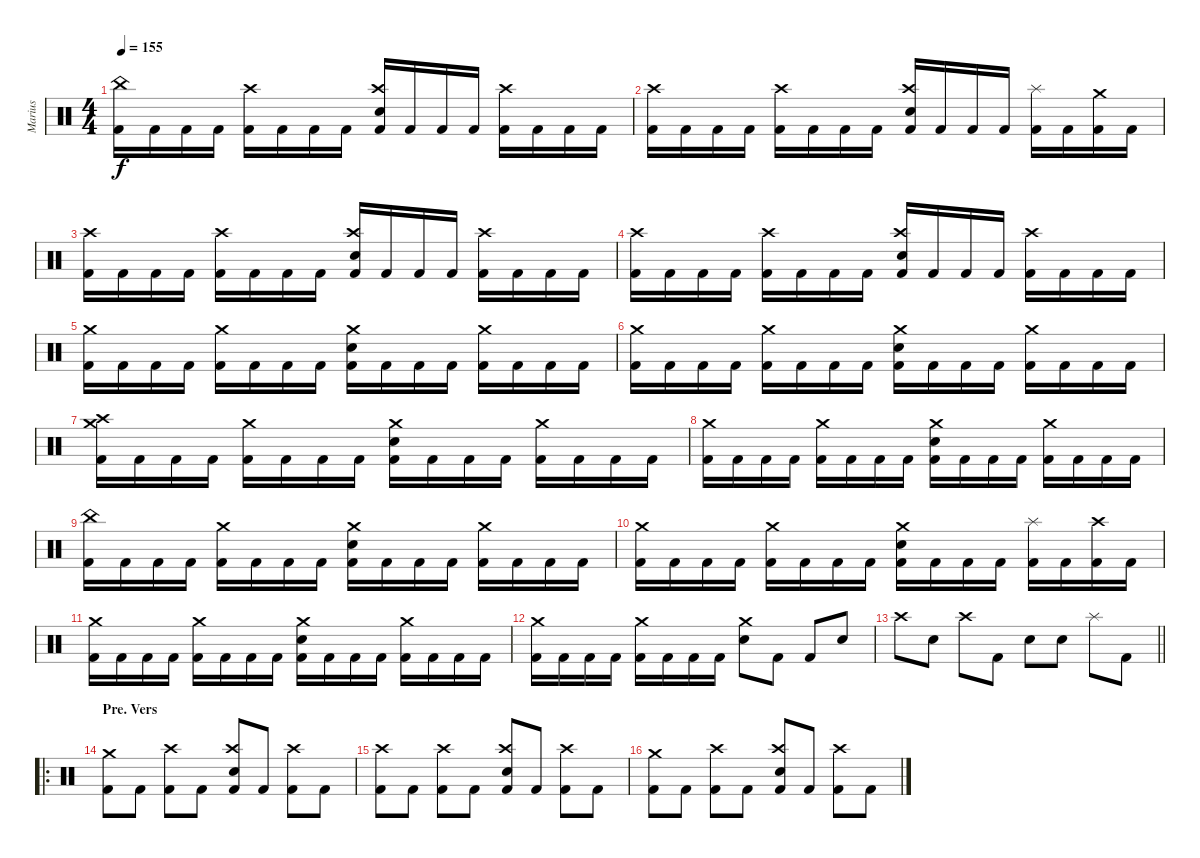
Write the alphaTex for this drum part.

\track ("Marius" "Marius") {instrument percussion}
\staff {score}
\articulation defaults
\ts (4 4)
\tempo 155
\clef neutral
\ks c
("China (hit)" "Kick (hit) 2").16{dy f} "Kick (hit) 2".16 "Kick (hit) 2".16 "Kick (hit) 2".16 ("Crash high (hit)" "Kick (hit) 2").16 "Kick (hit) 2".16 "Kick (hit) 2".16 "Kick (hit) 2".16 ("Crash high (hit)" "Snare (hit) 2" "Kick (hit) 2").16 "Kick (hit) 2".16 "Kick (hit) 2".16 "Kick (hit) 2".16 ("Crash high (hit)" "Kick (hit) 2").16 "Kick (hit) 2".16 "Kick (hit) 2".16 "Kick (hit) 2".16 |
("Crash high (hit)" "Kick (hit) 2").16 "Kick (hit) 2".16 "Kick (hit) 2".16 "Kick (hit) 2".16 ("Crash high (hit)" "Kick (hit) 2").16 "Kick (hit) 2".16 "Kick (hit) 2".16 "Kick (hit) 2".16 ("Crash high (hit)" "Snare (hit) 2" "Kick (hit) 2").16 "Kick (hit) 2".16 "Kick (hit) 2".16 "Kick (hit) 2".16 ("Splash (hit)" "Kick (hit) 2").16 "Kick (hit) 2".16 ("Crash medium (hit)" "Kick (hit) 2").16 "Kick (hit) 2".16 |
("Crash high (hit)" "Kick (hit) 2").16 "Kick (hit) 2".16 "Kick (hit) 2".16 "Kick (hit) 2".16 ("Crash high (hit)" "Kick (hit) 2").16 "Kick (hit) 2".16 "Kick (hit) 2".16 "Kick (hit) 2".16 ("Crash high (hit)" "Snare (hit) 2" "Kick (hit) 2").16 "Kick (hit) 2".16 "Kick (hit) 2".16 "Kick (hit) 2".16 ("Crash high (hit)" "Kick (hit) 2").16 "Kick (hit) 2".16 "Kick (hit) 2".16 "Kick (hit) 2".16 |
("Crash high (hit)" "Kick (hit) 2").16 "Kick (hit) 2".16 "Kick (hit) 2".16 "Kick (hit) 2".16 ("Crash high (hit)" "Kick (hit) 2").16 "Kick (hit) 2".16 "Kick (hit) 2".16 "Kick (hit) 2".16 ("Crash high (hit)" "Snare (hit) 2" "Kick (hit) 2").16 "Kick (hit) 2".16 "Kick (hit) 2".16 "Kick (hit) 2".16 ("Crash high (hit)" "Kick (hit) 2").16 "Kick (hit) 2".16 "Kick (hit) 2".16 "Kick (hit) 2".16 |
("Crash medium (hit)" "Kick (hit) 2").16 "Kick (hit) 2".16 "Kick (hit) 2".16 "Kick (hit) 2".16 ("Crash medium (hit)" "Kick (hit) 2").16 "Kick (hit) 2".16 "Kick (hit) 2".16 "Kick (hit) 2".16 ("Crash medium (hit)" "Snare (hit) 2" "Kick (hit) 2").16 "Kick (hit) 2".16 "Kick (hit) 2".16 "Kick (hit) 2".16 ("Crash medium (hit)" "Kick (hit) 2").16 "Kick (hit) 2".16 "Kick (hit) 2".16 "Kick (hit) 2".16 |
("Crash medium (hit)" "Kick (hit) 2").16 "Kick (hit) 2".16 "Kick (hit) 2".16 "Kick (hit) 2".16 ("Crash medium (hit)" "Kick (hit) 2").16 "Kick (hit) 2".16 "Kick (hit) 2".16 "Kick (hit) 2".16 ("Crash medium (hit)" "Snare (hit) 2" "Kick (hit) 2").16 "Kick (hit) 2".16 "Kick (hit) 2".16 "Kick (hit) 2".16 ("Crash medium (hit)" "Kick (hit) 2").16 "Kick (hit) 2".16 "Kick (hit) 2".16 "Kick (hit) 2".16 |
("Crash high (hit)" "Crash medium (hit)" "Kick (hit) 2").16 "Kick (hit) 2".16 "Kick (hit) 2".16 "Kick (hit) 2".16 ("Crash medium (hit)" "Kick (hit) 2").16 "Kick (hit) 2".16 "Kick (hit) 2".16 "Kick (hit) 2".16 ("Crash medium (hit)" "Snare (hit) 2" "Kick (hit) 2").16 "Kick (hit) 2".16 "Kick (hit) 2".16 "Kick (hit) 2".16 ("Crash medium (hit)" "Kick (hit) 2").16 "Kick (hit) 2".16 "Kick (hit) 2".16 "Kick (hit) 2".16 |
("Crash medium (hit)" "Kick (hit) 2").16 "Kick (hit) 2".16 "Kick (hit) 2".16 "Kick (hit) 2".16 ("Crash medium (hit)" "Kick (hit) 2").16 "Kick (hit) 2".16 "Kick (hit) 2".16 "Kick (hit) 2".16 ("Crash medium (hit)" "Snare (hit) 2" "Kick (hit) 2").16 "Kick (hit) 2".16 "Kick (hit) 2".16 "Kick (hit) 2".16 ("Crash medium (hit)" "Kick (hit) 2").16 "Kick (hit) 2".16 "Kick (hit) 2".16 "Kick (hit) 2".16 |
("China (hit)" "Kick (hit) 2").16 "Kick (hit) 2".16 "Kick (hit) 2".16 "Kick (hit) 2".16 ("Crash medium (hit)" "Kick (hit) 2").16 "Kick (hit) 2".16 "Kick (hit) 2".16 "Kick (hit) 2".16 ("Crash medium (hit)" "Snare (hit) 2" "Kick (hit) 2").16 "Kick (hit) 2".16 "Kick (hit) 2".16 "Kick (hit) 2".16 ("Crash medium (hit)" "Kick (hit) 2").16 "Kick (hit) 2".16 "Kick (hit) 2".16 "Kick (hit) 2".16 |
("Crash medium (hit)" "Kick (hit) 2").16 "Kick (hit) 2".16 "Kick (hit) 2".16 "Kick (hit) 2".16 ("Crash medium (hit)" "Kick (hit) 2").16 "Kick (hit) 2".16 "Kick (hit) 2".16 "Kick (hit) 2".16 ("Crash medium (hit)" "Snare (hit) 2" "Kick (hit) 2").16 "Kick (hit) 2".16 "Kick (hit) 2".16 "Kick (hit) 2".16 ("Splash (hit)" "Kick (hit) 2").16 "Kick (hit) 2".16 ("Crash high (hit)" "Kick (hit) 2").16 "Kick (hit) 2".16 |
("Crash medium (hit)" "Kick (hit) 2").16 "Kick (hit) 2".16 "Kick (hit) 2".16 "Kick (hit) 2".16 ("Crash medium (hit)" "Kick (hit) 2").16 "Kick (hit) 2".16 "Kick (hit) 2".16 "Kick (hit) 2".16 ("Crash medium (hit)" "Snare (hit) 2" "Kick (hit) 2").16 "Kick (hit) 2".16 "Kick (hit) 2".16 "Kick (hit) 2".16 ("Crash medium (hit)" "Kick (hit) 2").16 "Kick (hit) 2".16 "Kick (hit) 2".16 "Kick (hit) 2".16 |
("Crash medium (hit)" "Kick (hit) 2").16 "Kick (hit) 2".16 "Kick (hit) 2".16 "Kick (hit) 2".16 ("Crash medium (hit)" "Kick (hit) 2").16 "Kick (hit) 2".16 "Kick (hit) 2".16 "Kick (hit) 2".16 ("Crash medium (hit)" "Snare (hit) 2").8 "Kick (hit) 2".8 "Kick (hit) 2".8 "Snare (hit) 2".8 |
\barLineRight lightlight "Crash high (hit)".8 "Snare (hit) 2".8 "Crash high (hit)".8 "Kick (hit) 2".8 "Snare (hit) 2".8 "Snare (hit) 2".8 "Splash (hit)".8 "Kick (hit) 2".8
|
\ro
\section ("" "Pre. Vers")
("Crash medium (hit)" "Kick (hit) 2").8 "Kick (hit) 2".8 ("Crash high (hit)" "Kick (hit) 2").8 "Kick (hit) 2".8 ("Crash high (hit)" "Snare (hit) 2" "Kick (hit) 2").8 "Kick (hit) 2".8 ("Crash high (hit)" "Kick (hit) 2").8 "Kick (hit) 2".8 |
("Crash high (hit)" "Kick (hit) 2").8 "Kick (hit) 2".8 ("Crash high (hit)" "Kick (hit) 2").8 "Kick (hit) 2".8 ("Crash high (hit)" "Snare (hit) 2" "Kick (hit) 2").8 "Kick (hit) 2".8 ("Crash high (hit)" "Kick (hit) 2").8 "Kick (hit) 2".8 |
("Crash medium (hit)" "Kick (hit) 2").8 "Kick (hit) 2".8 ("Crash high (hit)" "Kick (hit) 2").8 "Kick (hit) 2".8 ("Crash high (hit)" "Snare (hit) 2" "Kick (hit) 2").8 "Kick (hit) 2".8 ("Crash high (hit)" "Kick (hit) 2").8 "Kick (hit) 2".8
